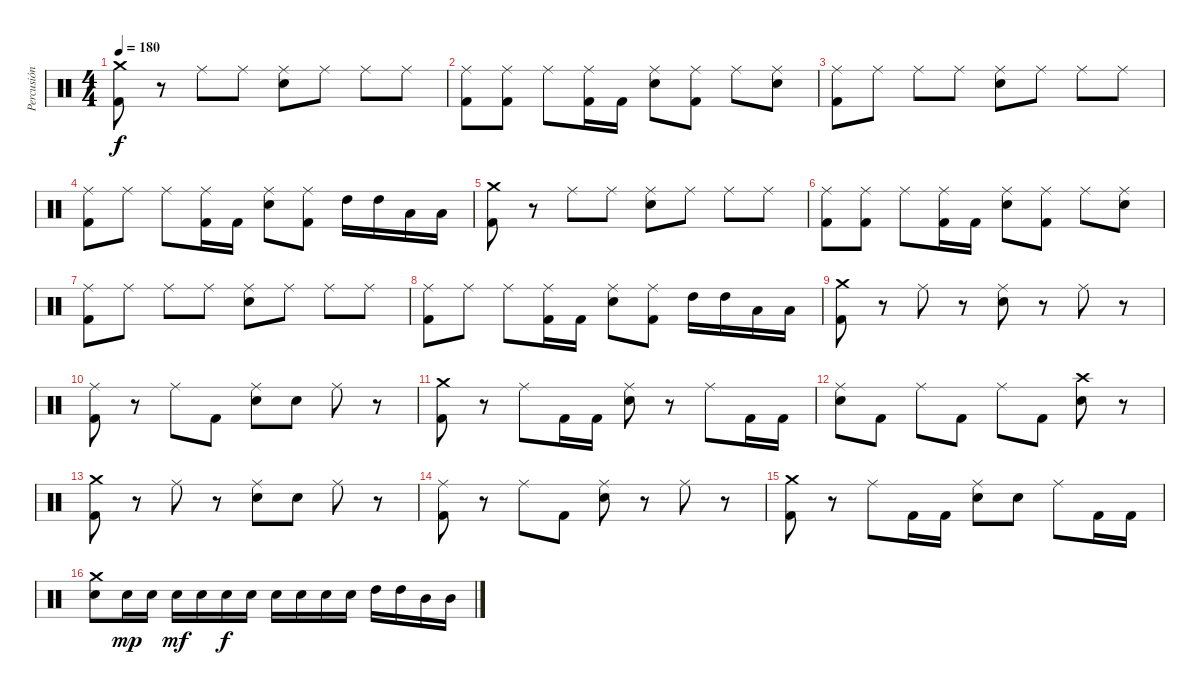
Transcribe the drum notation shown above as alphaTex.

\track ("Percusión" "Percusión") {instrument percussion}
\staff {score}
\articulation defaults
\ts (4 4)
\tempo 180
\clef neutral
\ks c
("Crash medium (hit)" "Kick (hit) 2").8{dy f} r.8 "Ride (middle)".8 "Ride (middle)".8 ("Ride (middle)" "Electric Snare (hit)").8 "Ride (middle)".8 "Ride (middle)".8 "Ride (middle)".8 |
("Ride (middle)" "Kick (hit) 2").8 ("Ride (middle)" "Kick (hit) 2").8 "Ride (middle)".8 ("Ride (middle)" "Kick (hit) 2").16 "Kick (hit) 2".16 ("Ride (middle)" "Electric Snare (hit)").8 ("Ride (middle)" "Kick (hit) 2").8 "Ride (middle)".8 ("Ride (middle)" "Electric Snare (hit)").8 |
("Ride (middle)" "Kick (hit) 2").8 "Ride (middle)".8 "Ride (middle)".8 "Ride (middle)".8 ("Ride (middle)" "Electric Snare (hit)").8 "Ride (middle)".8 "Ride (middle)".8 "Ride (middle)".8 |
("Ride (middle)" "Kick (hit) 2").8 "Ride (middle)".8 "Ride (middle)".8 ("Ride (middle)" "Kick (hit) 2").16 "Kick (hit) 2".16 ("Ride (middle)" "Electric Snare (hit)").8 ("Ride (middle)" "Kick (hit) 2").8 "High Tom (hit)".16 "High Tom (hit)".16 "Low Tom (hit)".16 "Low Tom (hit)".16 |
("Crash medium (hit)" "Kick (hit) 2").8 r.8 "Ride (middle)".8 "Ride (middle)".8 ("Ride (middle)" "Electric Snare (hit)").8 "Ride (middle)".8 "Ride (middle)".8 "Ride (middle)".8 |
("Ride (middle)" "Kick (hit) 2").8 ("Ride (middle)" "Kick (hit) 2").8 "Ride (middle)".8 ("Ride (middle)" "Kick (hit) 2").16 "Kick (hit) 2".16 ("Ride (middle)" "Electric Snare (hit)").8 ("Ride (middle)" "Kick (hit) 2").8 "Ride (middle)".8 ("Ride (middle)" "Electric Snare (hit)").8 |
("Ride (middle)" "Kick (hit) 2").8 "Ride (middle)".8 "Ride (middle)".8 "Ride (middle)".8 ("Ride (middle)" "Electric Snare (hit)").8 "Ride (middle)".8 "Ride (middle)".8 "Ride (middle)".8 |
("Ride (middle)" "Kick (hit) 2").8 "Ride (middle)".8 "Ride (middle)".8 ("Ride (middle)" "Kick (hit) 2").16 "Kick (hit) 2".16 ("Ride (middle)" "Electric Snare (hit)").8 ("Ride (middle)" "Kick (hit) 2").8 "High Tom (hit)".16 "High Tom (hit)".16 "Low Tom (hit)".16 "Low Tom (hit)".16 |
("Crash medium (hit)" "Kick (hit) 2").8 r.8 "Ride (middle)".8 r.8 ("Ride (middle)" "Electric Snare (hit)").8 r.8 "Ride (middle)".8 r.8 |
("Ride (middle)" "Kick (hit) 2").8 r.8 "Ride (middle)".8 "Kick (hit) 2".8 ("Ride (middle)" "Electric Snare (hit)").8 "Electric Snare (hit)".8 "Ride (middle)".8 r.8 |
("Crash medium (hit)" "Kick (hit) 2").8 r.8 "Ride (middle)".8 "Kick (hit) 2".16 "Kick (hit) 2".16 ("Ride (middle)" "Electric Snare (hit)").8 r.8 "Ride (middle)".8 "Kick (hit) 2".16 "Kick (hit) 2".16 |
("Ride (middle)" "Electric Snare (hit)").8 "Kick (hit) 2".8 "Ride (middle)".8 "Kick (hit) 2".8 "Ride (middle)".8 "Kick (hit) 2".8 ("Crash high (hit)" "Electric Snare (hit)").8 r.8 |
("Crash medium (hit)" "Kick (hit) 2").8 r.8 "Ride (middle)".8 r.8 ("Ride (middle)" "Electric Snare (hit)").8 "Electric Snare (hit)".8 "Ride (middle)".8 r.8 |
("Ride (middle)" "Kick (hit) 2").8 r.8 "Ride (middle)".8 "Kick (hit) 2".8 ("Ride (middle)" "Electric Snare (hit)").8 r.8 "Ride (middle)".8 r.8 |
("Crash medium (hit)" "Kick (hit) 2").8 r.8 "Ride (middle)".8 "Kick (hit) 2".16 "Kick (hit) 2".16 ("Ride (middle)" "Electric Snare (hit)").8 "Electric Snare (hit)".8 "Ride (middle)".8 "Kick (hit) 2".16 "Kick (hit) 2".16 |
("Crash medium (hit)" "Electric Snare (hit)").8 "Electric Snare (hit)".16{dy mp} "Electric Snare (hit)".16 "Electric Snare (hit)".16{dy mf} "Electric Snare (hit)".16 "Electric Snare (hit)".16{dy f} "Electric Snare (hit)".16 "Electric Snare (hit)".16 "Electric Snare (hit)".16 "Electric Snare (hit)".16 "Electric Snare (hit)".16 "High Tom (hit)".16 "High Tom (hit)".16 "Mid Tom (hit)".16 "Mid Tom (hit)".16
